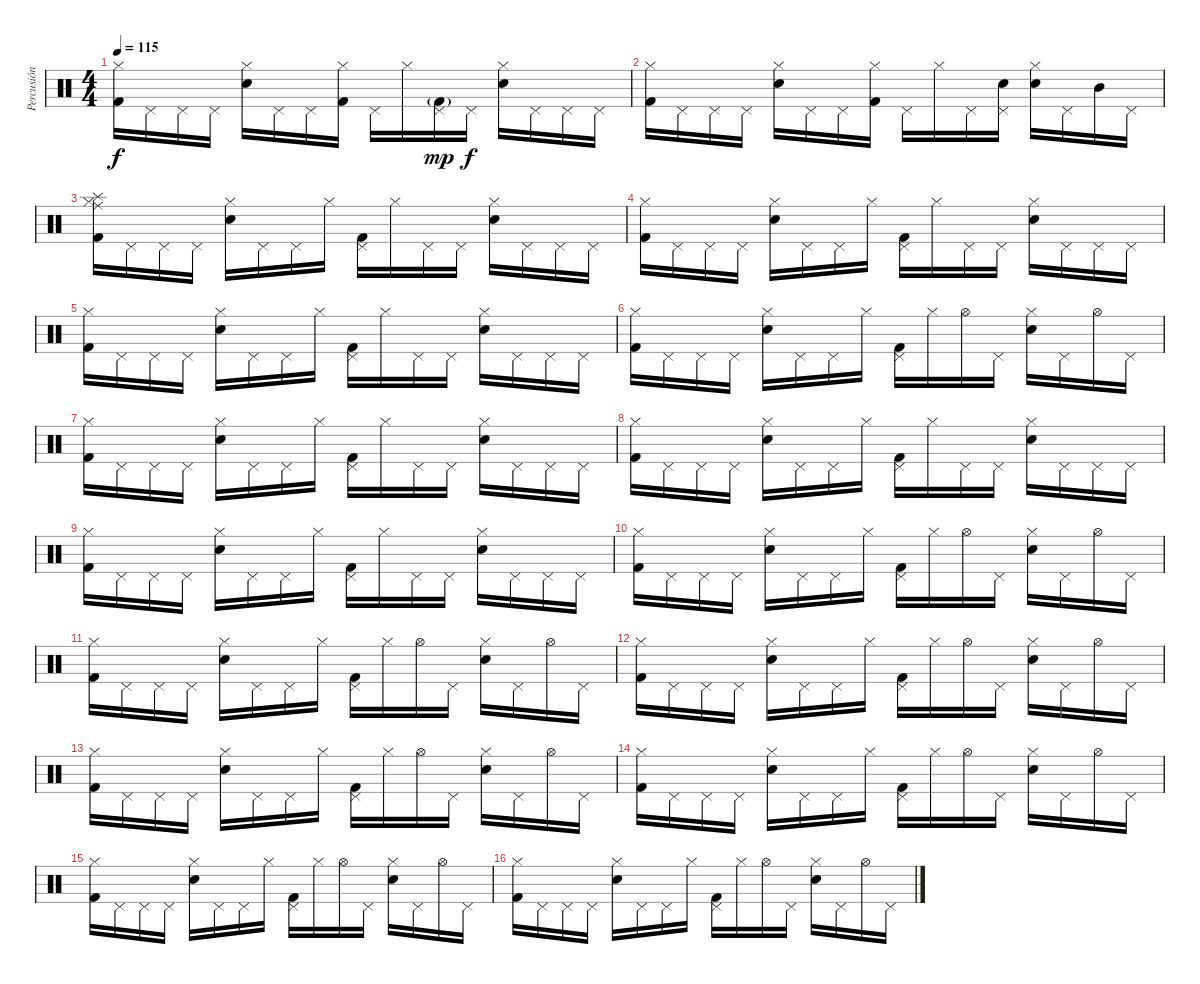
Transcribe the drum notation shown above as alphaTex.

\track ("Percusión" "Percusión") {instrument percussion}
\staff {score}
\articulation defaults
\ts (4 4)
\tempo 115
\clef neutral
\ks c
("Hi-Hat (closed)" "Kick (hit) 2").16{dy f} "Pedal Hi-Hat (hit)".16 "Pedal Hi-Hat (hit)".16 "Pedal Hi-Hat (hit)".16 ("Hi-Hat (closed)" "Snare (hit) 2").16 "Pedal Hi-Hat (hit)".16 "Pedal Hi-Hat (hit)".16 ("Hi-Hat (closed)" "Kick (hit) 2").16 "Pedal Hi-Hat (hit)".16 "Hi-Hat (closed)".16 ("Pedal Hi-Hat (hit)" "Kick (hit) 2"{g}).16{dy mp} "Pedal Hi-Hat (hit)".16{dy f} ("Hi-Hat (closed)" "Snare (hit) 2").16 "Pedal Hi-Hat (hit)".16 "Pedal Hi-Hat (hit)".16 "Pedal Hi-Hat (hit)".16 |
("Hi-Hat (closed)" "Kick (hit) 2").16 "Pedal Hi-Hat (hit)".16 "Pedal Hi-Hat (hit)".16 "Pedal Hi-Hat (hit)".16 ("Hi-Hat (closed)" "Snare (hit) 2").16 "Pedal Hi-Hat (hit)".16 "Pedal Hi-Hat (hit)".16 ("Hi-Hat (closed)" "Kick (hit) 2").16 "Pedal Hi-Hat (hit)".16 "Hi-Hat (closed)".16 "Pedal Hi-Hat (hit)".16 ("Pedal Hi-Hat (hit)" "Snare (hit) 2").16 ("Hi-Hat (closed)" "Snare (hit) 2").16 "Pedal Hi-Hat (hit)".16 "Mid Tom (hit)".16 "Pedal Hi-Hat (hit)".16 |
("Hi-Hat (closed)" "Kick (hit) 2" "Splash (hit)" "Ride (middle)").16 "Pedal Hi-Hat (hit)".16 "Pedal Hi-Hat (hit)".16 "Pedal Hi-Hat (hit)".16 ("Hi-Hat (closed)" "Snare (hit) 2").16 "Pedal Hi-Hat (hit)".16 "Pedal Hi-Hat (hit)".16 "Hi-Hat (closed)".16 ("Pedal Hi-Hat (hit)" "Kick (hit) 2").16 "Hi-Hat (closed)".16 "Pedal Hi-Hat (hit)".16 "Pedal Hi-Hat (hit)".16 ("Hi-Hat (closed)" "Snare (hit) 2").16 "Pedal Hi-Hat (hit)".16 "Pedal Hi-Hat (hit)".16 "Pedal Hi-Hat (hit)".16 |
("Hi-Hat (closed)" "Kick (hit) 2").16 "Pedal Hi-Hat (hit)".16 "Pedal Hi-Hat (hit)".16 "Pedal Hi-Hat (hit)".16 ("Hi-Hat (closed)" "Snare (hit) 2").16 "Pedal Hi-Hat (hit)".16 "Pedal Hi-Hat (hit)".16 "Hi-Hat (closed)".16 ("Pedal Hi-Hat (hit)" "Kick (hit) 2").16 "Hi-Hat (closed)".16 "Pedal Hi-Hat (hit)".16 "Pedal Hi-Hat (hit)".16 ("Hi-Hat (closed)" "Snare (hit) 2").16 "Pedal Hi-Hat (hit)".16 "Pedal Hi-Hat (hit)".16 "Pedal Hi-Hat (hit)".16 |
("Hi-Hat (closed)" "Kick (hit) 2").16 "Pedal Hi-Hat (hit)".16 "Pedal Hi-Hat (hit)".16 "Pedal Hi-Hat (hit)".16 ("Hi-Hat (closed)" "Snare (hit) 2").16 "Pedal Hi-Hat (hit)".16 "Pedal Hi-Hat (hit)".16 "Hi-Hat (closed)".16 ("Pedal Hi-Hat (hit)" "Kick (hit) 2").16 "Hi-Hat (closed)".16 "Pedal Hi-Hat (hit)".16 "Pedal Hi-Hat (hit)".16 ("Hi-Hat (closed)" "Snare (hit) 2").16 "Pedal Hi-Hat (hit)".16 "Pedal Hi-Hat (hit)".16 "Pedal Hi-Hat (hit)".16 |
("Hi-Hat (closed)" "Kick (hit) 2").16 "Pedal Hi-Hat (hit)".16 "Pedal Hi-Hat (hit)".16 "Pedal Hi-Hat (hit)".16 ("Hi-Hat (closed)" "Snare (hit) 2").16 "Pedal Hi-Hat (hit)".16 "Pedal Hi-Hat (hit)".16 "Hi-Hat (closed)".16 ("Pedal Hi-Hat (hit)" "Kick (hit) 2").16 "Hi-Hat (closed)".16 "Hi-Hat (open)".16 "Pedal Hi-Hat (hit)".16 ("Hi-Hat (closed)" "Snare (hit) 2").16 "Pedal Hi-Hat (hit)".16 "Hi-Hat (open)".16 "Pedal Hi-Hat (hit)".16 |
("Hi-Hat (closed)" "Kick (hit) 2").16 "Pedal Hi-Hat (hit)".16 "Pedal Hi-Hat (hit)".16 "Pedal Hi-Hat (hit)".16 ("Hi-Hat (closed)" "Snare (hit) 2").16 "Pedal Hi-Hat (hit)".16 "Pedal Hi-Hat (hit)".16 "Hi-Hat (closed)".16 ("Pedal Hi-Hat (hit)" "Kick (hit) 2").16 "Hi-Hat (closed)".16 "Pedal Hi-Hat (hit)".16 "Pedal Hi-Hat (hit)".16 ("Hi-Hat (closed)" "Snare (hit) 2").16 "Pedal Hi-Hat (hit)".16 "Pedal Hi-Hat (hit)".16 "Pedal Hi-Hat (hit)".16 |
("Hi-Hat (closed)" "Kick (hit) 2").16 "Pedal Hi-Hat (hit)".16 "Pedal Hi-Hat (hit)".16 "Pedal Hi-Hat (hit)".16 ("Hi-Hat (closed)" "Snare (hit) 2").16 "Pedal Hi-Hat (hit)".16 "Pedal Hi-Hat (hit)".16 "Hi-Hat (closed)".16 ("Pedal Hi-Hat (hit)" "Kick (hit) 2").16 "Hi-Hat (closed)".16 "Pedal Hi-Hat (hit)".16 "Pedal Hi-Hat (hit)".16 ("Hi-Hat (closed)" "Snare (hit) 2").16 "Pedal Hi-Hat (hit)".16 "Pedal Hi-Hat (hit)".16 "Pedal Hi-Hat (hit)".16 |
("Hi-Hat (closed)" "Kick (hit) 2").16 "Pedal Hi-Hat (hit)".16 "Pedal Hi-Hat (hit)".16 "Pedal Hi-Hat (hit)".16 ("Hi-Hat (closed)" "Snare (hit) 2").16 "Pedal Hi-Hat (hit)".16 "Pedal Hi-Hat (hit)".16 "Hi-Hat (closed)".16 ("Pedal Hi-Hat (hit)" "Kick (hit) 2").16 "Hi-Hat (closed)".16 "Pedal Hi-Hat (hit)".16 "Pedal Hi-Hat (hit)".16 ("Hi-Hat (closed)" "Snare (hit) 2").16 "Pedal Hi-Hat (hit)".16 "Pedal Hi-Hat (hit)".16 "Pedal Hi-Hat (hit)".16 |
("Hi-Hat (closed)" "Kick (hit) 2").16 "Pedal Hi-Hat (hit)".16 "Pedal Hi-Hat (hit)".16 "Pedal Hi-Hat (hit)".16 ("Hi-Hat (closed)" "Snare (hit) 2").16 "Pedal Hi-Hat (hit)".16 "Pedal Hi-Hat (hit)".16 "Hi-Hat (closed)".16 ("Pedal Hi-Hat (hit)" "Kick (hit) 2").16 "Hi-Hat (closed)".16 "Hi-Hat (open)".16 "Pedal Hi-Hat (hit)".16 ("Hi-Hat (closed)" "Snare (hit) 2").16 "Pedal Hi-Hat (hit)".16 "Hi-Hat (open)".16 "Pedal Hi-Hat (hit)".16 |
("Hi-Hat (closed)" "Kick (hit) 2").16 "Pedal Hi-Hat (hit)".16 "Pedal Hi-Hat (hit)".16 "Pedal Hi-Hat (hit)".16 ("Hi-Hat (closed)" "Snare (hit) 2").16 "Pedal Hi-Hat (hit)".16 "Pedal Hi-Hat (hit)".16 "Hi-Hat (closed)".16 ("Pedal Hi-Hat (hit)" "Kick (hit) 2").16 "Hi-Hat (closed)".16 "Hi-Hat (open)".16 "Pedal Hi-Hat (hit)".16 ("Hi-Hat (closed)" "Snare (hit) 2").16 "Pedal Hi-Hat (hit)".16 "Hi-Hat (open)".16 "Pedal Hi-Hat (hit)".16 |
("Hi-Hat (closed)" "Kick (hit) 2").16 "Pedal Hi-Hat (hit)".16 "Pedal Hi-Hat (hit)".16 "Pedal Hi-Hat (hit)".16 ("Hi-Hat (closed)" "Snare (hit) 2").16 "Pedal Hi-Hat (hit)".16 "Pedal Hi-Hat (hit)".16 "Hi-Hat (closed)".16 ("Pedal Hi-Hat (hit)" "Kick (hit) 2").16 "Hi-Hat (closed)".16 "Hi-Hat (open)".16 "Pedal Hi-Hat (hit)".16 ("Hi-Hat (closed)" "Snare (hit) 2").16 "Pedal Hi-Hat (hit)".16 "Hi-Hat (open)".16 "Pedal Hi-Hat (hit)".16 |
("Hi-Hat (closed)" "Kick (hit) 2").16 "Pedal Hi-Hat (hit)".16 "Pedal Hi-Hat (hit)".16 "Pedal Hi-Hat (hit)".16 ("Hi-Hat (closed)" "Snare (hit) 2").16 "Pedal Hi-Hat (hit)".16 "Pedal Hi-Hat (hit)".16 "Hi-Hat (closed)".16 ("Pedal Hi-Hat (hit)" "Kick (hit) 2").16 "Hi-Hat (closed)".16 "Hi-Hat (open)".16 "Pedal Hi-Hat (hit)".16 ("Hi-Hat (closed)" "Snare (hit) 2").16 "Pedal Hi-Hat (hit)".16 "Hi-Hat (open)".16 "Pedal Hi-Hat (hit)".16 |
("Hi-Hat (closed)" "Kick (hit) 2").16 "Pedal Hi-Hat (hit)".16 "Pedal Hi-Hat (hit)".16 "Pedal Hi-Hat (hit)".16 ("Hi-Hat (closed)" "Snare (hit) 2").16 "Pedal Hi-Hat (hit)".16 "Pedal Hi-Hat (hit)".16 "Hi-Hat (closed)".16 ("Pedal Hi-Hat (hit)" "Kick (hit) 2").16 "Hi-Hat (closed)".16 "Hi-Hat (open)".16 "Pedal Hi-Hat (hit)".16 ("Hi-Hat (closed)" "Snare (hit) 2").16 "Pedal Hi-Hat (hit)".16 "Hi-Hat (open)".16 "Pedal Hi-Hat (hit)".16 |
("Hi-Hat (closed)" "Kick (hit) 2").16 "Pedal Hi-Hat (hit)".16 "Pedal Hi-Hat (hit)".16 "Pedal Hi-Hat (hit)".16 ("Hi-Hat (closed)" "Snare (hit) 2").16 "Pedal Hi-Hat (hit)".16 "Pedal Hi-Hat (hit)".16 "Hi-Hat (closed)".16 ("Pedal Hi-Hat (hit)" "Kick (hit) 2").16 "Hi-Hat (closed)".16 "Hi-Hat (open)".16 "Pedal Hi-Hat (hit)".16 ("Hi-Hat (closed)" "Snare (hit) 2").16 "Pedal Hi-Hat (hit)".16 "Hi-Hat (open)".16 "Pedal Hi-Hat (hit)".16 |
("Hi-Hat (closed)" "Kick (hit) 2").16 "Pedal Hi-Hat (hit)".16 "Pedal Hi-Hat (hit)".16 "Pedal Hi-Hat (hit)".16 ("Hi-Hat (closed)" "Snare (hit) 2").16 "Pedal Hi-Hat (hit)".16 "Pedal Hi-Hat (hit)".16 "Hi-Hat (closed)".16 ("Pedal Hi-Hat (hit)" "Kick (hit) 2").16 "Hi-Hat (closed)".16 "Hi-Hat (open)".16 "Pedal Hi-Hat (hit)".16 ("Hi-Hat (closed)" "Snare (hit) 2").16 "Pedal Hi-Hat (hit)".16 "Hi-Hat (open)".16 "Pedal Hi-Hat (hit)".16
